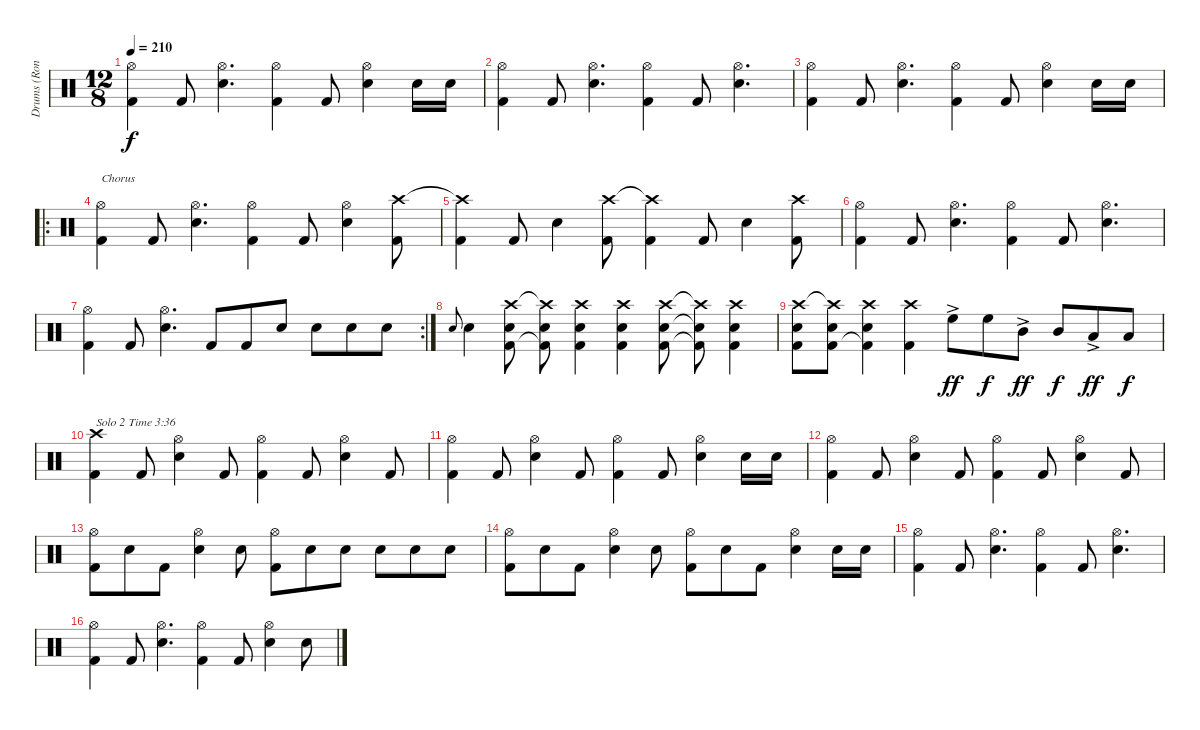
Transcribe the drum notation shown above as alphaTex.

\track ("Drums (Ronny)" "Drums (Ron") {instrument percussion}
\staff {score}
\articulation defaults
\ts (12 8)
\tempo 210
\clef neutral
\ks c
("Hi-Hat (open)" "Kick (hit) 2").4{dy f} "Kick (hit) 2".8 ("Hi-Hat (open)" "Snare (hit) 2").4{d} ("Hi-Hat (open)" "Kick (hit) 2").4 "Kick (hit) 2".8 ("Hi-Hat (open)" "Snare (hit) 2").4 "Snare (hit) 2".16 "Snare (hit) 2".16 |
("Hi-Hat (open)" "Kick (hit) 2").4 "Kick (hit) 2".8 ("Hi-Hat (open)" "Snare (hit) 2").4{d} ("Hi-Hat (open)" "Kick (hit) 2").4 "Kick (hit) 2".8 ("Hi-Hat (open)" "Snare (hit) 2").4{d} |
("Hi-Hat (open)" "Kick (hit) 2").4 "Kick (hit) 2".8 ("Hi-Hat (open)" "Snare (hit) 2").4{d} ("Hi-Hat (open)" "Kick (hit) 2").4 "Kick (hit) 2".8 ("Hi-Hat (open)" "Snare (hit) 2").4 "Snare (hit) 2".16 "Snare (hit) 2".16 |
\ro
("Hi-Hat (open)" "Kick (hit) 2").4{txt "Chorus"} "Kick (hit) 2".8 ("Hi-Hat (open)" "Snare (hit) 2").4{d} ("Hi-Hat (open)" "Kick (hit) 2").4 "Kick (hit) 2".8 ("Hi-Hat (open)" "Snare (hit) 2").4 ("Crash high (hit)" "Kick (hit) 2").8 |
("Crash high (hit)"{t} "Kick (hit) 2").4 "Kick (hit) 2".8 "Snare (hit) 2".4 ("Crash high (hit)" "Kick (hit) 2").8 ("Crash high (hit)"{t} "Kick (hit) 2").4 "Kick (hit) 2".8 "Snare (hit) 2".4 ("Crash high (hit)" "Kick (hit) 2").8 |
("Hi-Hat (open)" "Kick (hit) 2").4 "Kick (hit) 2".8 ("Hi-Hat (open)" "Snare (hit) 2").4{d} ("Hi-Hat (open)" "Kick (hit) 2").4 "Kick (hit) 2".8 ("Hi-Hat (open)" "Snare (hit) 2").4{d} |
\rc 2
("Hi-Hat (open)" "Kick (hit) 2").4 "Kick (hit) 2".8 ("Hi-Hat (open)" "Snare (hit) 2").4{d} "Kick (hit) 2".8 "Kick (hit) 2".8 "Snare (hit) 2".8 "Snare (hit) 2".8 "Snare (hit) 2".8 "Snare (hit) 2".8 |
"Snare (hit) 2".8{gr onbeat} "Snare (hit) 2".4 ("Crash high (hit)" "Snare (hit) 2" "Kick (hit) 2").8 ("Crash high (hit)"{t} "Snare (hit) 2" "Kick (hit) 2"{t}).8 ("Crash high (hit)" "Snare (hit) 2" "Kick (hit) 2").4 ("Crash high (hit)" "Snare (hit) 2" "Kick (hit) 2").4 ("Crash high (hit)" "Snare (hit) 2" "Kick (hit) 2").8 ("Crash high (hit)"{t} "Snare (hit) 2"{t} "Kick (hit) 2"{t}).8 ("Crash high (hit)" "Snare (hit) 2" "Kick (hit) 2").4 |
("Crash high (hit)" "Snare (hit) 2" "Kick (hit) 2").8 ("Crash high (hit)"{t} "Snare (hit) 2" "Kick (hit) 2").8 ("Crash high (hit)" "Snare (hit) 2" "Kick (hit) 2"{t}).4 ("Crash high (hit)" "Kick (hit) 2").4 "High Floor Tom (hit)"{ac}.8{dy ff} "High Floor Tom (hit)".8{dy f} "Mid Tom (hit)"{ac}.8{dy ff} "Mid Tom (hit)".8{dy f} "Low Tom (hit)"{ac}.8{dy ff} "Low Tom (hit)".8{dy f} |
("Crash high (hit)" "Kick (hit) 2").4{txt "Solo 2 Time 3:36"} "Kick (hit) 2".8 ("Hi-Hat (open)" "Snare (hit) 2").4 "Kick (hit) 2".8 ("Hi-Hat (open)" "Kick (hit) 2").4 "Kick (hit) 2".8 ("Hi-Hat (open)" "Snare (hit) 2").4 "Kick (hit) 2".8 |
("Hi-Hat (open)" "Kick (hit) 2").4 "Kick (hit) 2".8 ("Hi-Hat (open)" "Snare (hit) 2").4 "Kick (hit) 2".8 ("Hi-Hat (open)" "Kick (hit) 2").4 "Kick (hit) 2".8 ("Hi-Hat (open)" "Snare (hit) 2").4 "Snare (hit) 2".16 "Snare (hit) 2".16 |
("Hi-Hat (open)" "Kick (hit) 2").4 "Kick (hit) 2".8 ("Hi-Hat (open)" "Snare (hit) 2").4 "Kick (hit) 2".8 ("Hi-Hat (open)" "Kick (hit) 2").4 "Kick (hit) 2".8 ("Hi-Hat (open)" "Snare (hit) 2").4 "Kick (hit) 2".8 |
("Hi-Hat (open)" "Kick (hit) 2").8 "Snare (hit) 2".8 "Kick (hit) 2".8 ("Hi-Hat (open)" "Snare (hit) 2").4 "Snare (hit) 2".8 ("Hi-Hat (open)" "Kick (hit) 2").8 "Snare (hit) 2".8 "Snare (hit) 2".8 "Snare (hit) 2".8 "Snare (hit) 2".8 "Snare (hit) 2".8 |
("Hi-Hat (open)" "Kick (hit) 2").8 "Snare (hit) 2".8 "Kick (hit) 2".8 ("Hi-Hat (open)" "Snare (hit) 2").4 "Snare (hit) 2".8 ("Hi-Hat (open)" "Kick (hit) 2").8 "Snare (hit) 2".8 "Kick (hit) 2".8 ("Hi-Hat (open)" "Snare (hit) 2").4 "Snare (hit) 2".16 "Snare (hit) 2".16 |
("Hi-Hat (open)" "Kick (hit) 2").4 "Kick (hit) 2".8 ("Hi-Hat (open)" "Snare (hit) 2").4{d} ("Hi-Hat (open)" "Kick (hit) 2").4 "Kick (hit) 2".8 ("Hi-Hat (open)" "Snare (hit) 2").4{d} |
("Hi-Hat (open)" "Kick (hit) 2").4 "Kick (hit) 2".8 ("Hi-Hat (open)" "Snare (hit) 2").4{d} ("Hi-Hat (open)" "Kick (hit) 2").4 "Kick (hit) 2".8 ("Hi-Hat (open)" "Snare (hit) 2").4 "Snare (hit) 2".8
